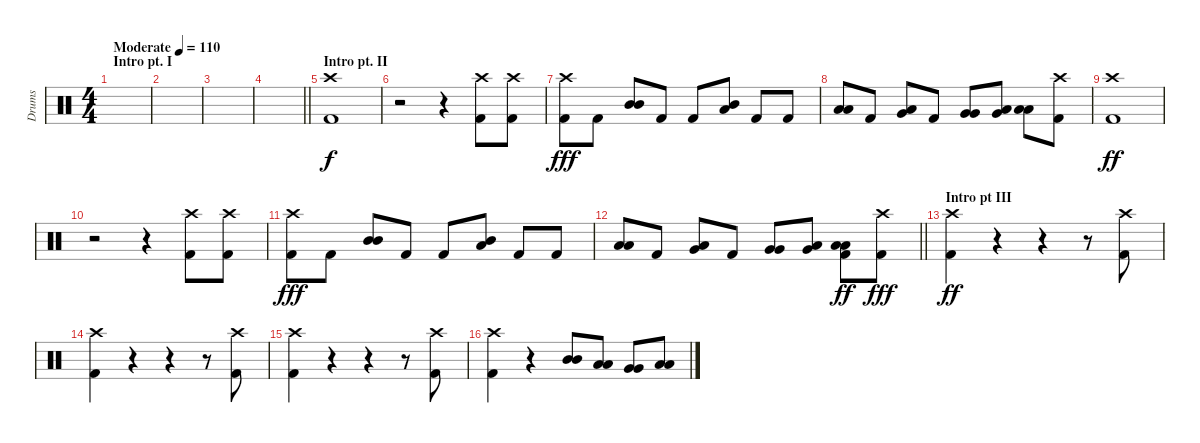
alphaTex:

\track ("Drums" "Drums") {instrument percussion}
\staff {score}
\articulation defaults
\ts (4 4)
\section ("" "Intro pt. I")
\tempo (110 "Moderate")
\clef neutral
\ks c
|
|
|
\barLineRight lightlight
|
\section ("" "Intro pt. II")
("Crash high (hit)" "Kick (hit) 2").1 |
r.2 r.4 ("Crash high (hit)" "Kick (hit) 2").8 ("Crash high (hit)" "Kick (hit) 2").8 |
("Crash high (hit)" "Kick (hit) 2").8{dy fff} "Kick (hit) 2".8 ("Mid Tom (hit)" "Mid Tom (hit)").8 "Kick (hit) 2".8 "Kick (hit) 2".8 ("Mid Tom (hit)" "Low Tom (hit)").8 "Kick (hit) 2".8 "Kick (hit) 2".8 |
("Low Tom (hit)" "Low Tom (hit)").8 "Kick (hit) 2".8 ("Low Tom (hit)" "Very Low Tom (hit)").8 "Kick (hit) 2".8 ("Very Low Tom (hit)" "Very Low Tom (hit)").8 ("Low Floor Tom (hit)" "Very Low Tom (hit)").8 ("Low Floor Tom (hit)" "Low Floor Tom (hit)").8 ("Crash high (hit)" "Kick (hit) 2").8 |
("Crash high (hit)" "Kick (hit) 2").1{dy ff} |
r.2 r.4 ("Crash high (hit)" "Kick (hit) 2").8 ("Crash high (hit)" "Kick (hit) 2").8 |
("Crash high (hit)" "Kick (hit) 2").8{dy fff} "Kick (hit) 2".8 ("Mid Tom (hit)" "Mid Tom (hit)").8 "Kick (hit) 2".8 "Kick (hit) 2".8 ("Mid Tom (hit)" "Low Tom (hit)").8 "Kick (hit) 2".8 "Kick (hit) 2".8 |
\barLineRight lightlight
("Low Tom (hit)" "Low Tom (hit)").8 "Kick (hit) 2".8 ("Low Tom (hit)" "Very Low Tom (hit)").8 "Kick (hit) 2".8 ("Very Low Tom (hit)" "Very Low Tom (hit)").8 ("Low Floor Tom (hit)" "Very Low Tom (hit)").8 ("Low Floor Tom (hit)" "Low Floor Tom (hit)" "Kick (hit) 2").8{dy ff} ("Crash high (hit)" "Kick (hit) 2").8{dy fff} |
\section ("" "Intro pt III")
("Crash high (hit)" "Kick (hit) 2").4{dy ff} r.4 r.4 r.8 ("Crash high (hit)" "Kick (hit) 2").8 |
("Crash high (hit)" "Kick (hit) 2").4 r.4 r.4 r.8 ("Crash high (hit)" "Kick (hit) 2").8 |
("Crash high (hit)" "Kick (hit) 2").4 r.4 r.4 r.8 ("Crash high (hit)" "Kick (hit) 2").8 |
("Crash high (hit)" "Kick (hit) 2").4 r.4 ("Mid Tom (hit)" "Mid Tom (hit)").8 ("Low Tom (hit)" "Low Tom (hit)").8 ("Very Low Tom (hit)" "Very Low Tom (hit)").8 ("Low Floor Tom (hit)" "Low Floor Tom (hit)").8
